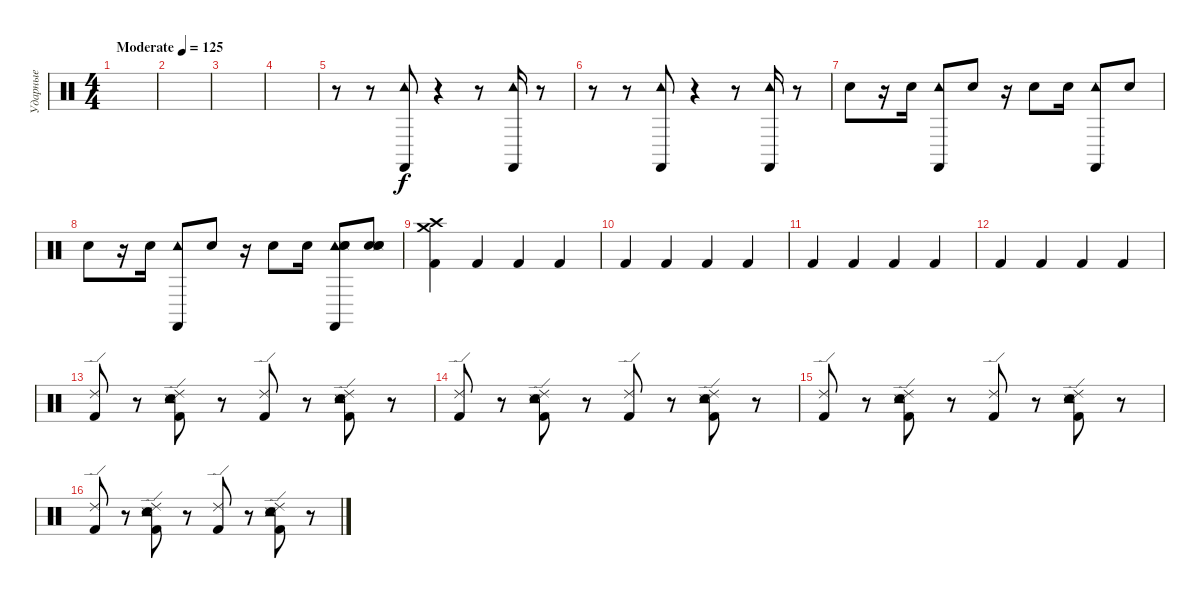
\track ("Ударные" "Ударные") {instrument percussion}
\staff {score}
\articulation defaults
\ts (4 4)
\tempo (125 "Moderate")
\clef neutral
\ks c
|
|
|
|
r.8 r.8 ("Castanets (hit)" "Tambourine (hit)").8 r.4 r.8 ("Castanets (hit)" "Tambourine (hit)").16 r.8 |
r.8 r.8 ("Castanets (hit)" "Tambourine (hit)").8 r.4 r.8 ("Castanets (hit)" "Tambourine (hit)").16 r.8 |
"Snare (hit) 2".8 r.16 "Snare (hit) 2".16 ("Castanets (hit)" "Tambourine (hit)").8 "Snare (hit) 2".8 r.16 "Snare (hit) 2".8 "Snare (hit) 2".16 ("Castanets (hit)" "Tambourine (hit)").8 "Snare (hit) 2".8 |
"Snare (hit) 2".8 r.16 "Snare (hit) 2".16 ("Castanets (hit)" "Tambourine (hit)").8 "Snare (hit) 2".8 r.16 "Snare (hit) 2".8 "Snare (hit) 2".16 ("Castanets (hit)" "Tambourine (hit)" "Hand Clap (hit)" "Snare (side stick) 3" "Hand Clap (hit)").8 ("Snare (hit) 2" "Hand Clap (hit)" "Snare (side stick) 3" "Hand Clap (hit)").8 |
("Crash high (hit)" "Crash medium (hit)" "Kick (hit) 2").4 "Kick (hit) 2".4 "Kick (hit) 2".4 "Kick (hit) 2".4 |
"Kick (hit) 2".4 "Kick (hit) 2".4 "Kick (hit) 2".4 "Kick (hit) 2".4 |
"Kick (hit) 2".4 "Kick (hit) 2".4 "Kick (hit) 2".4 "Kick (hit) 2".4 |
"Kick (hit) 2".4 "Kick (hit) 2".4 "Kick (hit) 2".4 "Kick (hit) 2".4 |
("Kick (hit) 2" "Ride (edge) 2").8 r.8 ("Snare (side stick) 3" "Hand Clap (hit)" "Tambourine (hit)" "Kick (hit) 2" "Ride (edge) 2").8 r.8 ("Kick (hit) 2" "Ride (edge) 2").8 r.8 ("Snare (side stick) 3" "Hand Clap (hit)" "Tambourine (hit)" "Kick (hit) 2" "Ride (edge) 2").8 r.8 |
("Kick (hit) 2" "Ride (edge) 2").8 r.8 ("Snare (side stick) 3" "Hand Clap (hit)" "Tambourine (hit)" "Kick (hit) 2" "Ride (edge) 2").8 r.8 ("Kick (hit) 2" "Ride (edge) 2").8 r.8 ("Snare (side stick) 3" "Hand Clap (hit)" "Tambourine (hit)" "Kick (hit) 2" "Ride (edge) 2").8 r.8 |
("Kick (hit) 2" "Ride (edge) 2").8 r.8 ("Snare (side stick) 3" "Hand Clap (hit)" "Tambourine (hit)" "Kick (hit) 2" "Ride (edge) 2").8 r.8 ("Kick (hit) 2" "Ride (edge) 2").8 r.8 ("Snare (side stick) 3" "Hand Clap (hit)" "Tambourine (hit)" "Kick (hit) 2" "Ride (edge) 2").8 r.8 |
("Kick (hit) 2" "Ride (edge) 2").8 r.8 ("Snare (side stick) 3" "Hand Clap (hit)" "Tambourine (hit)" "Kick (hit) 2" "Ride (edge) 2").8 r.8 ("Kick (hit) 2" "Ride (edge) 2").8 r.8 ("Snare (side stick) 3" "Hand Clap (hit)" "Tambourine (hit)" "Kick (hit) 2" "Ride (edge) 2").8 r.8
